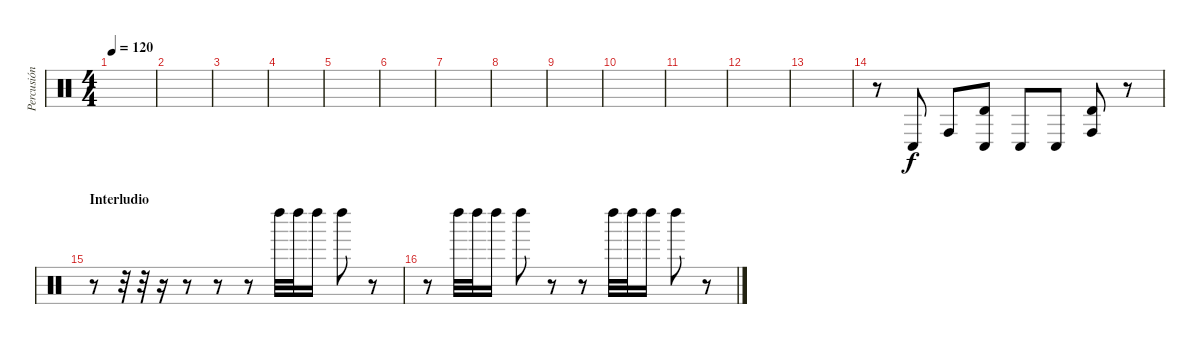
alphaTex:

\track ("Percusión" "Percusión") {instrument percussion}
\staff {score}
\articulation defaults
\ts (4 4)
\tempo 120
\clef neutral
\ks c
|
|
|
|
|
|
|
|
|
|
|
|
|
r.8 "Conga low (hit)".8 "Conga high (hit)".8 ("Timbale high (hit)" "Conga low (hit)").8 "Conga low (hit)".8 "Conga low (hit)".8 ("Timbale high (hit)" "Conga high (hit)").8 r.8 |
\section ("" "Interludio")
r.8 r.32 r.32 r.16 r.8 r.8 r.8 "Left Maraca (hit)".32 "Left Maraca (hit)".32 "Left Maraca (hit)".16 "Left Maraca (hit)".8 r.8 |
r.8 "Left Maraca (hit)".32 "Left Maraca (hit)".32 "Left Maraca (hit)".16 "Left Maraca (hit)".8 r.8 r.8 "Left Maraca (hit)".32 "Left Maraca (hit)".32 "Left Maraca (hit)".16 "Left Maraca (hit)".8 r.8
